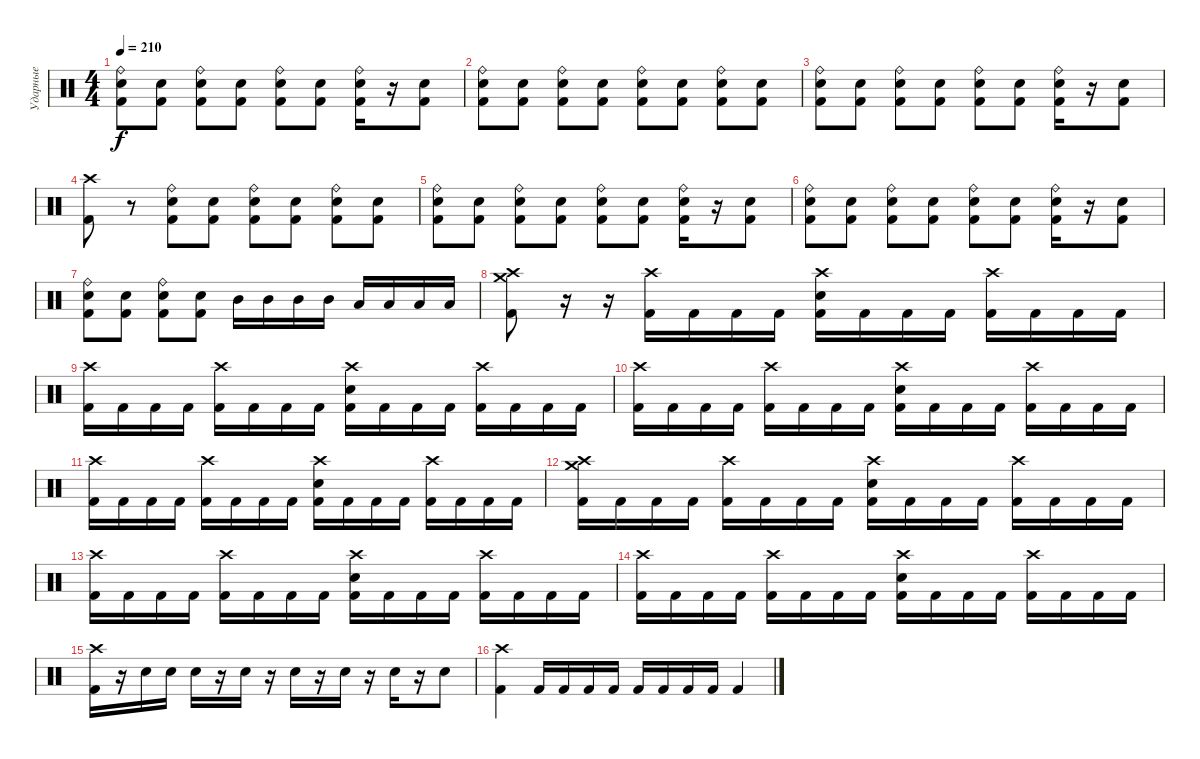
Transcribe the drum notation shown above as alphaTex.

\track ("Ударные" "Ударные") {instrument percussion}
\staff {score}
\articulation defaults
\ts (4 4)
\tempo 210
\clef neutral
\ks c
("Ride (bell)" "Electric Snare (hit)" "Kick (hit) 2").8{dy f} ("Electric Snare (hit)" "Kick (hit) 2").8 ("Ride (bell)" "Electric Snare (hit)" "Kick (hit) 2").8 ("Electric Snare (hit)" "Kick (hit) 2").8 ("Ride (bell)" "Electric Snare (hit)" "Kick (hit) 2").8 ("Electric Snare (hit)" "Kick (hit) 2").8 ("Ride (bell)" "Electric Snare (hit)" "Kick (hit) 2").16 r.16 ("Electric Snare (hit)" "Kick (hit) 2").8 |
("Ride (bell)" "Electric Snare (hit)" "Kick (hit) 2").8 ("Electric Snare (hit)" "Kick (hit) 2").8 ("Ride (bell)" "Electric Snare (hit)" "Kick (hit) 2").8 ("Electric Snare (hit)" "Kick (hit) 2").8 ("Ride (bell)" "Electric Snare (hit)" "Kick (hit) 2").8 ("Electric Snare (hit)" "Kick (hit) 2").8 ("Ride (bell)" "Electric Snare (hit)" "Kick (hit) 2").8 ("Electric Snare (hit)" "Kick (hit) 2").8 |
("Ride (bell)" "Electric Snare (hit)" "Kick (hit) 2").8 ("Electric Snare (hit)" "Kick (hit) 2").8 ("Ride (bell)" "Electric Snare (hit)" "Kick (hit) 2").8 ("Electric Snare (hit)" "Kick (hit) 2").8 ("Ride (bell)" "Electric Snare (hit)" "Kick (hit) 2").8 ("Electric Snare (hit)" "Kick (hit) 2").8 ("Ride (bell)" "Electric Snare (hit)" "Kick (hit) 2").16 r.16 ("Electric Snare (hit)" "Kick (hit) 2").8 |
("Crash high (hit)" "Kick (hit) 2").8 r.8 ("Ride (bell)" "Electric Snare (hit)" "Kick (hit) 2").8 ("Electric Snare (hit)" "Kick (hit) 2").8 ("Ride (bell)" "Electric Snare (hit)" "Kick (hit) 2").8 ("Electric Snare (hit)" "Kick (hit) 2").8 ("Ride (bell)" "Electric Snare (hit)" "Kick (hit) 2").8 ("Electric Snare (hit)" "Kick (hit) 2").8 |
("Ride (bell)" "Electric Snare (hit)" "Kick (hit) 2").8 ("Electric Snare (hit)" "Kick (hit) 2").8 ("Ride (bell)" "Electric Snare (hit)" "Kick (hit) 2").8 ("Electric Snare (hit)" "Kick (hit) 2").8 ("Ride (bell)" "Electric Snare (hit)" "Kick (hit) 2").8 ("Electric Snare (hit)" "Kick (hit) 2").8 ("Ride (bell)" "Electric Snare (hit)" "Kick (hit) 2").16 r.16 ("Electric Snare (hit)" "Kick (hit) 2").8 |
("Ride (bell)" "Electric Snare (hit)" "Kick (hit) 2").8 ("Electric Snare (hit)" "Kick (hit) 2").8 ("Ride (bell)" "Electric Snare (hit)" "Kick (hit) 2").8 ("Electric Snare (hit)" "Kick (hit) 2").8 ("Ride (bell)" "Electric Snare (hit)" "Kick (hit) 2").8 ("Electric Snare (hit)" "Kick (hit) 2").8 ("Ride (bell)" "Electric Snare (hit)" "Kick (hit) 2").16 r.16 ("Electric Snare (hit)" "Kick (hit) 2").8 |
("Ride (bell)" "Electric Snare (hit)" "Kick (hit) 2").8 ("Electric Snare (hit)" "Kick (hit) 2").8 ("Ride (bell)" "Electric Snare (hit)" "Kick (hit) 2").8 ("Electric Snare (hit)" "Kick (hit) 2").8 "Mid Tom (hit)".16 "Mid Tom (hit)".16 "Mid Tom (hit)".16 "Mid Tom (hit)".16 "Low Tom (hit)".16 "Low Tom (hit)".16 "Low Tom (hit)".16 "Low Tom (hit)".16 |
("Crash high (hit)" "Crash medium (hit)" "Kick (hit) 2").8 r.16 r.16 ("Crash high (hit)" "Kick (hit) 2").16 "Kick (hit) 2".16 "Kick (hit) 2".16 "Kick (hit) 2".16 ("Crash high (hit)" "Electric Snare (hit)" "Kick (hit) 2").16 "Kick (hit) 2".16 "Kick (hit) 2".16 "Kick (hit) 2".16 ("Crash high (hit)" "Kick (hit) 2").16 "Kick (hit) 2".16 "Kick (hit) 2".16 "Kick (hit) 2".16 |
("Crash high (hit)" "Kick (hit) 2").16 "Kick (hit) 2".16 "Kick (hit) 2".16 "Kick (hit) 2".16 ("Crash high (hit)" "Kick (hit) 2").16 "Kick (hit) 2".16 "Kick (hit) 2".16 "Kick (hit) 2".16 ("Crash high (hit)" "Electric Snare (hit)" "Kick (hit) 2").16 "Kick (hit) 2".16 "Kick (hit) 2".16 "Kick (hit) 2".16 ("Crash high (hit)" "Kick (hit) 2").16 "Kick (hit) 2".16 "Kick (hit) 2".16 "Kick (hit) 2".16 |
("Crash high (hit)" "Kick (hit) 2").16 "Kick (hit) 2".16 "Kick (hit) 2".16 "Kick (hit) 2".16 ("Crash high (hit)" "Kick (hit) 2").16 "Kick (hit) 2".16 "Kick (hit) 2".16 "Kick (hit) 2".16 ("Crash high (hit)" "Electric Snare (hit)" "Kick (hit) 2").16 "Kick (hit) 2".16 "Kick (hit) 2".16 "Kick (hit) 2".16 ("Crash high (hit)" "Kick (hit) 2").16 "Kick (hit) 2".16 "Kick (hit) 2".16 "Kick (hit) 2".16 |
("Crash high (hit)" "Kick (hit) 2").16 "Kick (hit) 2".16 "Kick (hit) 2".16 "Kick (hit) 2".16 ("Crash high (hit)" "Kick (hit) 2").16 "Kick (hit) 2".16 "Kick (hit) 2".16 "Kick (hit) 2".16 ("Crash high (hit)" "Electric Snare (hit)" "Kick (hit) 2").16 "Kick (hit) 2".16 "Kick (hit) 2".16 "Kick (hit) 2".16 ("Crash high (hit)" "Kick (hit) 2").16 "Kick (hit) 2".16 "Kick (hit) 2".16 "Kick (hit) 2".16 |
("Crash high (hit)" "Crash medium (hit)" "Kick (hit) 2").16 "Kick (hit) 2".16 "Kick (hit) 2".16 "Kick (hit) 2".16 ("Crash high (hit)" "Kick (hit) 2").16 "Kick (hit) 2".16 "Kick (hit) 2".16 "Kick (hit) 2".16 ("Crash high (hit)" "Electric Snare (hit)" "Kick (hit) 2").16 "Kick (hit) 2".16 "Kick (hit) 2".16 "Kick (hit) 2".16 ("Crash high (hit)" "Kick (hit) 2").16 "Kick (hit) 2".16 "Kick (hit) 2".16 "Kick (hit) 2".16 |
("Crash high (hit)" "Kick (hit) 2").16 "Kick (hit) 2".16 "Kick (hit) 2".16 "Kick (hit) 2".16 ("Crash high (hit)" "Kick (hit) 2").16 "Kick (hit) 2".16 "Kick (hit) 2".16 "Kick (hit) 2".16 ("Crash high (hit)" "Electric Snare (hit)" "Kick (hit) 2").16 "Kick (hit) 2".16 "Kick (hit) 2".16 "Kick (hit) 2".16 ("Crash high (hit)" "Kick (hit) 2").16 "Kick (hit) 2".16 "Kick (hit) 2".16 "Kick (hit) 2".16 |
("Crash high (hit)" "Kick (hit) 2").16 "Kick (hit) 2".16 "Kick (hit) 2".16 "Kick (hit) 2".16 ("Crash high (hit)" "Kick (hit) 2").16 "Kick (hit) 2".16 "Kick (hit) 2".16 "Kick (hit) 2".16 ("Crash high (hit)" "Electric Snare (hit)" "Kick (hit) 2").16 "Kick (hit) 2".16 "Kick (hit) 2".16 "Kick (hit) 2".16 ("Crash high (hit)" "Kick (hit) 2").16 "Kick (hit) 2".16 "Kick (hit) 2".16 "Kick (hit) 2".16 |
("Crash high (hit)" "Kick (hit) 2").16 r.16 "Electric Snare (hit)".16 "Electric Snare (hit)".16 "Electric Snare (hit)".16 r.16 "Electric Snare (hit)".16 r.16 "Electric Snare (hit)".16 r.16 "Electric Snare (hit)".16 r.16 "Electric Snare (hit)".16 r.16 "Electric Snare (hit)".8 |
("Crash high (hit)" "Kick (hit) 2").4 "Kick (hit) 2".16 "Kick (hit) 2".16 "Kick (hit) 2".16 "Kick (hit) 2".16 "Kick (hit) 2".16 "Kick (hit) 2".16 "Kick (hit) 2".16 "Kick (hit) 2".16 "Kick (hit) 2".4
